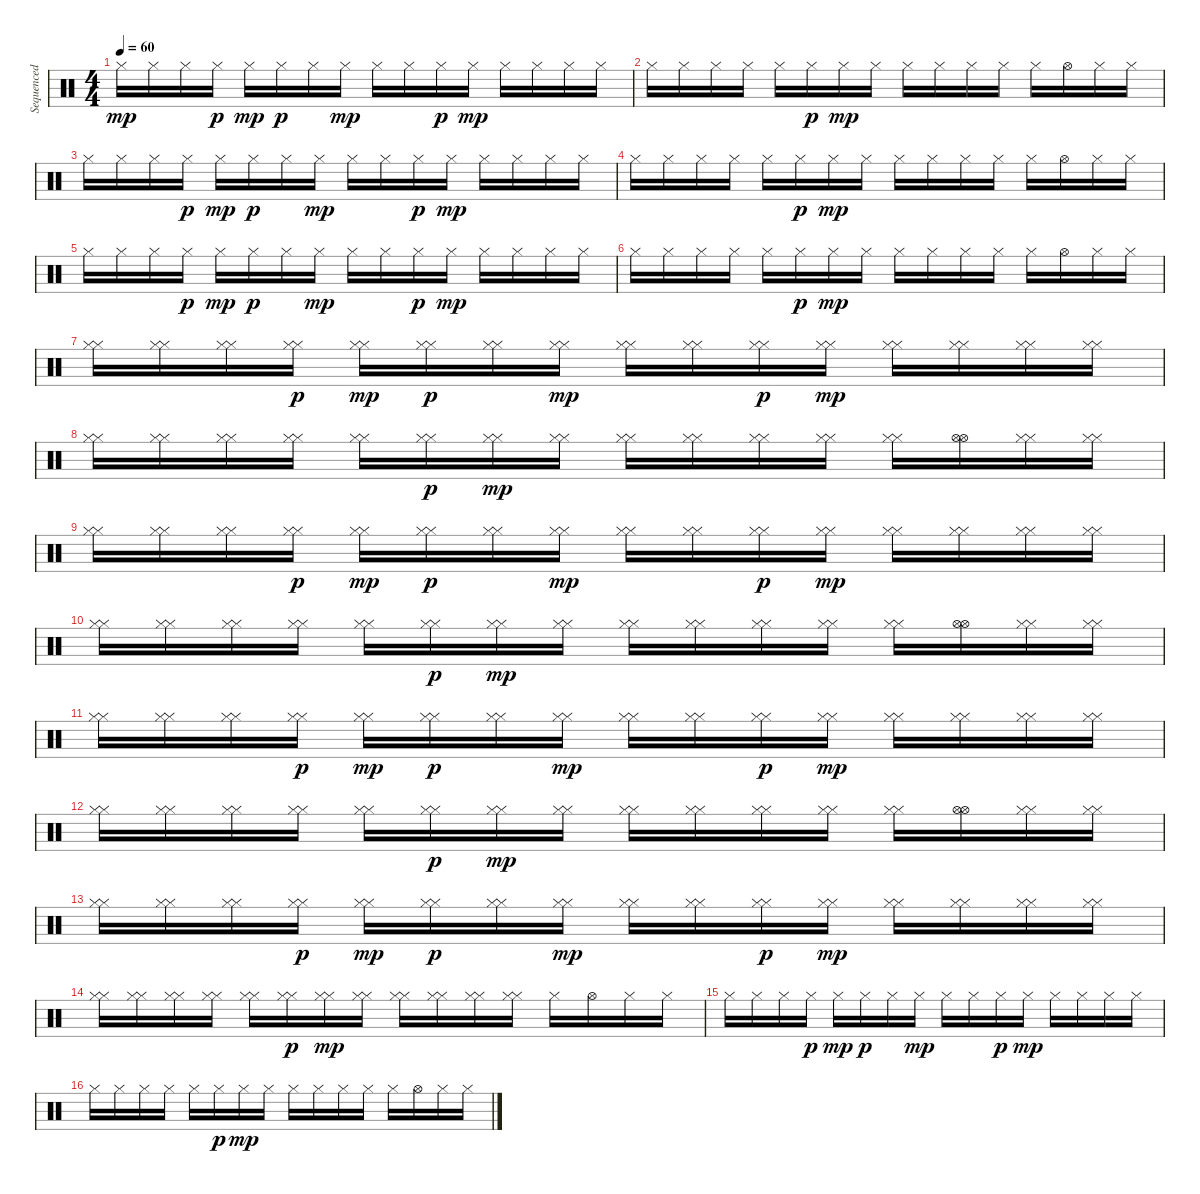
\track ("Sequenced by Ade" "Sequenced ") {instrument percussion}
\staff {score}
\articulation defaults
\ts (4 4)
\tempo 60
\clef neutral
\ks c "Hi-Hat (closed)".16{dy mp} "Hi-Hat (closed)".16 "Hi-Hat (closed)".16 "Hi-Hat (closed)".16{dy p} "Hi-Hat (closed)".16{dy mp} "Hi-Hat (closed)".16{dy p} "Hi-Hat (closed)".16 "Hi-Hat (closed)".16{dy mp} "Hi-Hat (closed)".16 "Hi-Hat (closed)".16 "Hi-Hat (closed)".16{dy p} "Hi-Hat (closed)".16{dy mp} "Hi-Hat (closed)".16 "Hi-Hat (closed)".16 "Hi-Hat (closed)".16 "Hi-Hat (closed)".16
|
"Hi-Hat (closed)".16 "Hi-Hat (closed)".16 "Hi-Hat (closed)".16 "Hi-Hat (closed)".16 "Hi-Hat (closed)".16 "Hi-Hat (closed)".16{dy p} "Hi-Hat (closed)".16{dy mp} "Hi-Hat (closed)".16 "Hi-Hat (closed)".16 "Hi-Hat (closed)".16 "Hi-Hat (closed)".16 "Hi-Hat (closed)".16 "Hi-Hat (closed)".16 "Hi-Hat (open)".16 "Hi-Hat (closed)".16 "Hi-Hat (closed)".16 |
"Hi-Hat (closed)".16 "Hi-Hat (closed)".16 "Hi-Hat (closed)".16 "Hi-Hat (closed)".16{dy p} "Hi-Hat (closed)".16{dy mp} "Hi-Hat (closed)".16{dy p} "Hi-Hat (closed)".16 "Hi-Hat (closed)".16{dy mp} "Hi-Hat (closed)".16 "Hi-Hat (closed)".16 "Hi-Hat (closed)".16{dy p} "Hi-Hat (closed)".16{dy mp} "Hi-Hat (closed)".16 "Hi-Hat (closed)".16 "Hi-Hat (closed)".16 "Hi-Hat (closed)".16 |
"Hi-Hat (closed)".16 "Hi-Hat (closed)".16 "Hi-Hat (closed)".16 "Hi-Hat (closed)".16 "Hi-Hat (closed)".16 "Hi-Hat (closed)".16{dy p} "Hi-Hat (closed)".16{dy mp} "Hi-Hat (closed)".16 "Hi-Hat (closed)".16 "Hi-Hat (closed)".16 "Hi-Hat (closed)".16 "Hi-Hat (closed)".16 "Hi-Hat (closed)".16 "Hi-Hat (open)".16 "Hi-Hat (closed)".16 "Hi-Hat (closed)".16 |
"Hi-Hat (closed)".16 "Hi-Hat (closed)".16 "Hi-Hat (closed)".16 "Hi-Hat (closed)".16{dy p} "Hi-Hat (closed)".16{dy mp} "Hi-Hat (closed)".16{dy p} "Hi-Hat (closed)".16 "Hi-Hat (closed)".16{dy mp} "Hi-Hat (closed)".16 "Hi-Hat (closed)".16 "Hi-Hat (closed)".16{dy p} "Hi-Hat (closed)".16{dy mp} "Hi-Hat (closed)".16 "Hi-Hat (closed)".16 "Hi-Hat (closed)".16 "Hi-Hat (closed)".16 |
"Hi-Hat (closed)".16 "Hi-Hat (closed)".16 "Hi-Hat (closed)".16 "Hi-Hat (closed)".16 "Hi-Hat (closed)".16 "Hi-Hat (closed)".16{dy p} "Hi-Hat (closed)".16{dy mp} "Hi-Hat (closed)".16 "Hi-Hat (closed)".16 "Hi-Hat (closed)".16 "Hi-Hat (closed)".16 "Hi-Hat (closed)".16 "Hi-Hat (closed)".16 "Hi-Hat (open)".16 "Hi-Hat (closed)".16 "Hi-Hat (closed)".16 |
("Hi-Hat (closed)" "Hi-Hat (closed)").16 ("Hi-Hat (closed)" "Hi-Hat (closed)").16 ("Hi-Hat (closed)" "Hi-Hat (closed)").16 ("Hi-Hat (closed)" "Hi-Hat (closed)").16{dy p} ("Hi-Hat (closed)" "Hi-Hat (closed)").16{dy mp} ("Hi-Hat (closed)" "Hi-Hat (closed)").16{dy p} ("Hi-Hat (closed)" "Hi-Hat (closed)").16 ("Hi-Hat (closed)" "Hi-Hat (closed)").16{dy mp} ("Hi-Hat (closed)" "Hi-Hat (closed)").16 ("Hi-Hat (closed)" "Hi-Hat (closed)").16 ("Hi-Hat (closed)" "Hi-Hat (closed)").16{dy p} ("Hi-Hat (closed)" "Hi-Hat (closed)").16{dy mp} ("Hi-Hat (closed)" "Hi-Hat (closed)").16 ("Hi-Hat (closed)" "Hi-Hat (closed)").16 ("Hi-Hat (closed)" "Hi-Hat (closed)").16 ("Hi-Hat (closed)" "Hi-Hat (closed)").16 |
("Hi-Hat (closed)" "Hi-Hat (closed)").16 ("Hi-Hat (closed)" "Hi-Hat (closed)").16 ("Hi-Hat (closed)" "Hi-Hat (closed)").16 ("Hi-Hat (closed)" "Hi-Hat (closed)").16 ("Hi-Hat (closed)" "Hi-Hat (closed)").16 ("Hi-Hat (closed)" "Hi-Hat (closed)").16{dy p} ("Hi-Hat (closed)" "Hi-Hat (closed)").16{dy mp} ("Hi-Hat (closed)" "Hi-Hat (closed)").16 ("Hi-Hat (closed)" "Hi-Hat (closed)").16 ("Hi-Hat (closed)" "Hi-Hat (closed)").16 ("Hi-Hat (closed)" "Hi-Hat (closed)").16 ("Hi-Hat (closed)" "Hi-Hat (closed)").16 ("Hi-Hat (closed)" "Hi-Hat (closed)").16 ("Hi-Hat (open)" "Hi-Hat (open)").16 ("Hi-Hat (closed)" "Hi-Hat (closed)").16 ("Hi-Hat (closed)" "Hi-Hat (closed)").16 |
("Hi-Hat (closed)" "Hi-Hat (closed)").16 ("Hi-Hat (closed)" "Hi-Hat (closed)").16 ("Hi-Hat (closed)" "Hi-Hat (closed)").16 ("Hi-Hat (closed)" "Hi-Hat (closed)").16{dy p} ("Hi-Hat (closed)" "Hi-Hat (closed)").16{dy mp} ("Hi-Hat (closed)" "Hi-Hat (closed)").16{dy p} ("Hi-Hat (closed)" "Hi-Hat (closed)").16 ("Hi-Hat (closed)" "Hi-Hat (closed)").16{dy mp} ("Hi-Hat (closed)" "Hi-Hat (closed)").16 ("Hi-Hat (closed)" "Hi-Hat (closed)").16 ("Hi-Hat (closed)" "Hi-Hat (closed)").16{dy p} ("Hi-Hat (closed)" "Hi-Hat (closed)").16{dy mp} ("Hi-Hat (closed)" "Hi-Hat (closed)").16 ("Hi-Hat (closed)" "Hi-Hat (closed)").16 ("Hi-Hat (closed)" "Hi-Hat (closed)").16 ("Hi-Hat (closed)" "Hi-Hat (closed)").16 |
("Hi-Hat (closed)" "Hi-Hat (closed)").16 ("Hi-Hat (closed)" "Hi-Hat (closed)").16 ("Hi-Hat (closed)" "Hi-Hat (closed)").16 ("Hi-Hat (closed)" "Hi-Hat (closed)").16 ("Hi-Hat (closed)" "Hi-Hat (closed)").16 ("Hi-Hat (closed)" "Hi-Hat (closed)").16{dy p} ("Hi-Hat (closed)" "Hi-Hat (closed)").16{dy mp} ("Hi-Hat (closed)" "Hi-Hat (closed)").16 ("Hi-Hat (closed)" "Hi-Hat (closed)").16 ("Hi-Hat (closed)" "Hi-Hat (closed)").16 ("Hi-Hat (closed)" "Hi-Hat (closed)").16 ("Hi-Hat (closed)" "Hi-Hat (closed)").16 ("Hi-Hat (closed)" "Hi-Hat (closed)").16 ("Hi-Hat (open)" "Hi-Hat (open)").16 ("Hi-Hat (closed)" "Hi-Hat (closed)").16 ("Hi-Hat (closed)" "Hi-Hat (closed)").16 |
("Hi-Hat (closed)" "Hi-Hat (closed)").16 ("Hi-Hat (closed)" "Hi-Hat (closed)").16 ("Hi-Hat (closed)" "Hi-Hat (closed)").16 ("Hi-Hat (closed)" "Hi-Hat (closed)").16{dy p} ("Hi-Hat (closed)" "Hi-Hat (closed)").16{dy mp} ("Hi-Hat (closed)" "Hi-Hat (closed)").16{dy p} ("Hi-Hat (closed)" "Hi-Hat (closed)").16 ("Hi-Hat (closed)" "Hi-Hat (closed)").16{dy mp} ("Hi-Hat (closed)" "Hi-Hat (closed)").16 ("Hi-Hat (closed)" "Hi-Hat (closed)").16 ("Hi-Hat (closed)" "Hi-Hat (closed)").16{dy p} ("Hi-Hat (closed)" "Hi-Hat (closed)").16{dy mp} ("Hi-Hat (closed)" "Hi-Hat (closed)").16 ("Hi-Hat (closed)" "Hi-Hat (closed)").16 ("Hi-Hat (closed)" "Hi-Hat (closed)").16 ("Hi-Hat (closed)" "Hi-Hat (closed)").16 |
("Hi-Hat (closed)" "Hi-Hat (closed)").16 ("Hi-Hat (closed)" "Hi-Hat (closed)").16 ("Hi-Hat (closed)" "Hi-Hat (closed)").16 ("Hi-Hat (closed)" "Hi-Hat (closed)").16 ("Hi-Hat (closed)" "Hi-Hat (closed)").16 ("Hi-Hat (closed)" "Hi-Hat (closed)").16{dy p} ("Hi-Hat (closed)" "Hi-Hat (closed)").16{dy mp} ("Hi-Hat (closed)" "Hi-Hat (closed)").16 ("Hi-Hat (closed)" "Hi-Hat (closed)").16 ("Hi-Hat (closed)" "Hi-Hat (closed)").16 ("Hi-Hat (closed)" "Hi-Hat (closed)").16 ("Hi-Hat (closed)" "Hi-Hat (closed)").16 ("Hi-Hat (closed)" "Hi-Hat (closed)").16 ("Hi-Hat (open)" "Hi-Hat (open)").16 ("Hi-Hat (closed)" "Hi-Hat (closed)").16 ("Hi-Hat (closed)" "Hi-Hat (closed)").16 |
("Hi-Hat (closed)" "Hi-Hat (closed)").16 ("Hi-Hat (closed)" "Hi-Hat (closed)").16 ("Hi-Hat (closed)" "Hi-Hat (closed)").16 ("Hi-Hat (closed)" "Hi-Hat (closed)").16{dy p} ("Hi-Hat (closed)" "Hi-Hat (closed)").16{dy mp} ("Hi-Hat (closed)" "Hi-Hat (closed)").16{dy p} ("Hi-Hat (closed)" "Hi-Hat (closed)").16 ("Hi-Hat (closed)" "Hi-Hat (closed)").16{dy mp} ("Hi-Hat (closed)" "Hi-Hat (closed)").16 ("Hi-Hat (closed)" "Hi-Hat (closed)").16 ("Hi-Hat (closed)" "Hi-Hat (closed)").16{dy p} ("Hi-Hat (closed)" "Hi-Hat (closed)").16{dy mp} ("Hi-Hat (closed)" "Hi-Hat (closed)").16 ("Hi-Hat (closed)" "Hi-Hat (closed)").16 ("Hi-Hat (closed)" "Hi-Hat (closed)").16 ("Hi-Hat (closed)" "Hi-Hat (closed)").16 |
("Hi-Hat (closed)" "Hi-Hat (closed)").16 ("Hi-Hat (closed)" "Hi-Hat (closed)").16 ("Hi-Hat (closed)" "Hi-Hat (closed)").16 ("Hi-Hat (closed)" "Hi-Hat (closed)").16 ("Hi-Hat (closed)" "Hi-Hat (closed)").16 ("Hi-Hat (closed)" "Hi-Hat (closed)").16{dy p} ("Hi-Hat (closed)" "Hi-Hat (closed)").16{dy mp} ("Hi-Hat (closed)" "Hi-Hat (closed)").16 ("Hi-Hat (closed)" "Hi-Hat (closed)").16 ("Hi-Hat (closed)" "Hi-Hat (closed)").16 ("Hi-Hat (closed)" "Hi-Hat (closed)").16 ("Hi-Hat (closed)" "Hi-Hat (closed)").16 "Hi-Hat (closed)".16 "Hi-Hat (open)".16 "Hi-Hat (closed)".16 "Hi-Hat (closed)".16 |
"Hi-Hat (closed)".16 "Hi-Hat (closed)".16 "Hi-Hat (closed)".16 "Hi-Hat (closed)".16{dy p} "Hi-Hat (closed)".16{dy mp} "Hi-Hat (closed)".16{dy p} "Hi-Hat (closed)".16 "Hi-Hat (closed)".16{dy mp} "Hi-Hat (closed)".16 "Hi-Hat (closed)".16 "Hi-Hat (closed)".16{dy p} "Hi-Hat (closed)".16{dy mp} "Hi-Hat (closed)".16 "Hi-Hat (closed)".16 "Hi-Hat (closed)".16 "Hi-Hat (closed)".16 |
"Hi-Hat (closed)".16 "Hi-Hat (closed)".16 "Hi-Hat (closed)".16 "Hi-Hat (closed)".16 "Hi-Hat (closed)".16 "Hi-Hat (closed)".16{dy p} "Hi-Hat (closed)".16{dy mp} "Hi-Hat (closed)".16 "Hi-Hat (closed)".16 "Hi-Hat (closed)".16 "Hi-Hat (closed)".16 "Hi-Hat (closed)".16 "Hi-Hat (closed)".16 "Hi-Hat (open)".16 "Hi-Hat (closed)".16 "Hi-Hat (closed)".16
